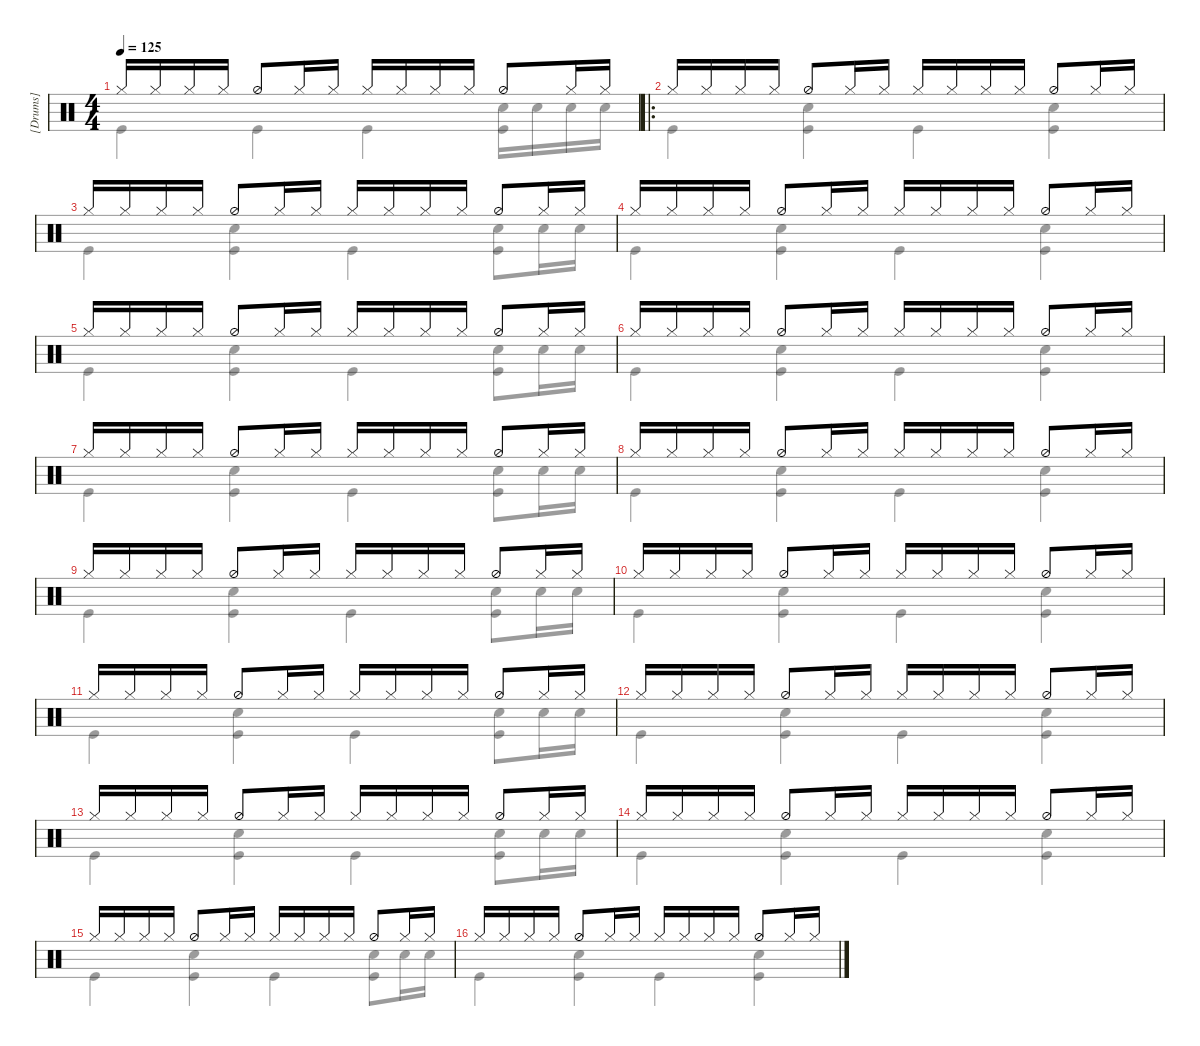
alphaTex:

\hideDynamics
\bracketExtendMode groupsimilarinstruments
\firstSystemTrackNameMode fullname
\otherSystemsTrackNameMode fullname
\otherSystemsTrackNameOrientation horizontal
\track ("[Drums]" "Drums") {instrument percussion}
\staff {score}
\articulation defaults
\voice
\ts (4 4)
\tempo 125
\clef neutral
\ks c "Hi-Hat (closed)".16{dy ff} "Hi-Hat (closed)".16 "Hi-Hat (closed)".16 "Hi-Hat (closed)".16 "Hi-Hat (half)".8 "Hi-Hat (closed)".16 "Hi-Hat (closed)".16 "Hi-Hat (closed)".16 "Hi-Hat (closed)".16 "Hi-Hat (closed)".16 "Hi-Hat (closed)".16 "Hi-Hat (half)".8 "Hi-Hat (closed)".16 "Hi-Hat (closed)".16
|
\ro
\scale
0.3 "Hi-Hat (closed)".16 "Hi-Hat (closed)".16 "Hi-Hat (closed)".16 "Hi-Hat (closed)".16 "Hi-Hat (half)".8 "Hi-Hat (closed)".16 "Hi-Hat (closed)".16 "Hi-Hat (closed)".16 "Hi-Hat (closed)".16 "Hi-Hat (closed)".16 "Hi-Hat (closed)".16 "Hi-Hat (half)".8 "Hi-Hat (closed)".16 "Hi-Hat (closed)".16 |
"Hi-Hat (closed)".16 "Hi-Hat (closed)".16 "Hi-Hat (closed)".16 "Hi-Hat (closed)".16 "Hi-Hat (half)".8 "Hi-Hat (closed)".16 "Hi-Hat (closed)".16 "Hi-Hat (closed)".16 "Hi-Hat (closed)".16 "Hi-Hat (closed)".16 "Hi-Hat (closed)".16 "Hi-Hat (half)".8 "Hi-Hat (closed)".16 "Hi-Hat (closed)".16 |
\scale
0.3 "Hi-Hat (closed)".16 "Hi-Hat (closed)".16 "Hi-Hat (closed)".16 "Hi-Hat (closed)".16 "Hi-Hat (half)".8 "Hi-Hat (closed)".16 "Hi-Hat (closed)".16 "Hi-Hat (closed)".16 "Hi-Hat (closed)".16 "Hi-Hat (closed)".16 "Hi-Hat (closed)".16 "Hi-Hat (half)".8 "Hi-Hat (closed)".16 "Hi-Hat (closed)".16 |
"Hi-Hat (closed)".16 "Hi-Hat (closed)".16 "Hi-Hat (closed)".16 "Hi-Hat (closed)".16 "Hi-Hat (half)".8 "Hi-Hat (closed)".16 "Hi-Hat (closed)".16 "Hi-Hat (closed)".16 "Hi-Hat (closed)".16 "Hi-Hat (closed)".16 "Hi-Hat (closed)".16 "Hi-Hat (half)".8 "Hi-Hat (closed)".16 "Hi-Hat (closed)".16 |
"Hi-Hat (closed)".16 "Hi-Hat (closed)".16 "Hi-Hat (closed)".16 "Hi-Hat (closed)".16 "Hi-Hat (half)".8 "Hi-Hat (closed)".16 "Hi-Hat (closed)".16 "Hi-Hat (closed)".16 "Hi-Hat (closed)".16 "Hi-Hat (closed)".16 "Hi-Hat (closed)".16 "Hi-Hat (half)".8 "Hi-Hat (closed)".16 "Hi-Hat (closed)".16 |
"Hi-Hat (closed)".16 "Hi-Hat (closed)".16 "Hi-Hat (closed)".16 "Hi-Hat (closed)".16 "Hi-Hat (half)".8 "Hi-Hat (closed)".16 "Hi-Hat (closed)".16 "Hi-Hat (closed)".16 "Hi-Hat (closed)".16 "Hi-Hat (closed)".16 "Hi-Hat (closed)".16 "Hi-Hat (half)".8 "Hi-Hat (closed)".16 "Hi-Hat (closed)".16 |
"Hi-Hat (closed)".16 "Hi-Hat (closed)".16 "Hi-Hat (closed)".16 "Hi-Hat (closed)".16 "Hi-Hat (half)".8 "Hi-Hat (closed)".16 "Hi-Hat (closed)".16 "Hi-Hat (closed)".16 "Hi-Hat (closed)".16 "Hi-Hat (closed)".16 "Hi-Hat (closed)".16 "Hi-Hat (half)".8 "Hi-Hat (closed)".16 "Hi-Hat (closed)".16 |
"Hi-Hat (closed)".16 "Hi-Hat (closed)".16 "Hi-Hat (closed)".16 "Hi-Hat (closed)".16 "Hi-Hat (half)".8 "Hi-Hat (closed)".16 "Hi-Hat (closed)".16 "Hi-Hat (closed)".16 "Hi-Hat (closed)".16 "Hi-Hat (closed)".16 "Hi-Hat (closed)".16 "Hi-Hat (half)".8 "Hi-Hat (closed)".16 "Hi-Hat (closed)".16 |
"Hi-Hat (closed)".16 "Hi-Hat (closed)".16 "Hi-Hat (closed)".16 "Hi-Hat (closed)".16 "Hi-Hat (half)".8 "Hi-Hat (closed)".16 "Hi-Hat (closed)".16 "Hi-Hat (closed)".16 "Hi-Hat (closed)".16 "Hi-Hat (closed)".16 "Hi-Hat (closed)".16 "Hi-Hat (half)".8 "Hi-Hat (closed)".16 "Hi-Hat (closed)".16 |
"Hi-Hat (closed)".16 "Hi-Hat (closed)".16 "Hi-Hat (closed)".16 "Hi-Hat (closed)".16 "Hi-Hat (half)".8 "Hi-Hat (closed)".16 "Hi-Hat (closed)".16 "Hi-Hat (closed)".16 "Hi-Hat (closed)".16 "Hi-Hat (closed)".16 "Hi-Hat (closed)".16 "Hi-Hat (half)".8 "Hi-Hat (closed)".16 "Hi-Hat (closed)".16 |
"Hi-Hat (closed)".16 "Hi-Hat (closed)".16 "Hi-Hat (closed)".16 "Hi-Hat (closed)".16 "Hi-Hat (half)".8 "Hi-Hat (closed)".16 "Hi-Hat (closed)".16 "Hi-Hat (closed)".16 "Hi-Hat (closed)".16 "Hi-Hat (closed)".16 "Hi-Hat (closed)".16 "Hi-Hat (half)".8 "Hi-Hat (closed)".16 "Hi-Hat (closed)".16 |
"Hi-Hat (closed)".16 "Hi-Hat (closed)".16 "Hi-Hat (closed)".16 "Hi-Hat (closed)".16 "Hi-Hat (half)".8 "Hi-Hat (closed)".16 "Hi-Hat (closed)".16 "Hi-Hat (closed)".16 "Hi-Hat (closed)".16 "Hi-Hat (closed)".16 "Hi-Hat (closed)".16 "Hi-Hat (half)".8 "Hi-Hat (closed)".16 "Hi-Hat (closed)".16 |
"Hi-Hat (closed)".16 "Hi-Hat (closed)".16 "Hi-Hat (closed)".16 "Hi-Hat (closed)".16 "Hi-Hat (half)".8 "Hi-Hat (closed)".16 "Hi-Hat (closed)".16 "Hi-Hat (closed)".16 "Hi-Hat (closed)".16 "Hi-Hat (closed)".16 "Hi-Hat (closed)".16 "Hi-Hat (half)".8 "Hi-Hat (closed)".16 "Hi-Hat (closed)".16 |
"Hi-Hat (closed)".16 "Hi-Hat (closed)".16 "Hi-Hat (closed)".16 "Hi-Hat (closed)".16 "Hi-Hat (half)".8 "Hi-Hat (closed)".16 "Hi-Hat (closed)".16 "Hi-Hat (closed)".16 "Hi-Hat (closed)".16 "Hi-Hat (closed)".16 "Hi-Hat (closed)".16 "Hi-Hat (half)".8 "Hi-Hat (closed)".16 "Hi-Hat (closed)".16 |
"Hi-Hat (closed)".16 "Hi-Hat (closed)".16 "Hi-Hat (closed)".16 "Hi-Hat (closed)".16 "Hi-Hat (half)".8 "Hi-Hat (closed)".16 "Hi-Hat (closed)".16 "Hi-Hat (closed)".16 "Hi-Hat (closed)".16 "Hi-Hat (closed)".16 "Hi-Hat (closed)".16 "Hi-Hat (half)".8 "Hi-Hat (closed)".16 "Hi-Hat (closed)".16
\voice
\clef neutral
\ottava regular
\simile none
\ks c "Kick (hit)".4{dy f} "Kick (hit)".4 "Kick (hit)".4
("Kick (hit)" "Snare (hit) 2").16 "Snare (hit) 2".16 "Snare (hit) 2".16 "Snare (hit) 2".16 |
\scale
0.3 "Kick (hit)".4 ("Kick (hit)" "Snare (hit) 2").4 "Kick (hit)".4 ("Kick (hit)" "Snare (hit) 2").4 |
"Kick (hit)".4 ("Kick (hit)" "Snare (hit) 2").4 "Kick (hit)".4 ("Kick (hit)" "Snare (hit) 2").8 "Snare (hit) 2".16 "Snare (hit) 2".16 |
\scale
0.3 "Kick (hit)".4 ("Kick (hit)" "Snare (hit) 2").4 "Kick (hit)".4 ("Kick (hit)" "Snare (hit) 2").4 |
"Kick (hit)".4 ("Kick (hit)" "Snare (hit) 2").4 "Kick (hit)".4 ("Kick (hit)" "Snare (hit) 2").8 "Snare (hit) 2".16 "Snare (hit) 2".16 |
"Kick (hit)".4 ("Kick (hit)" "Snare (hit) 2").4 "Kick (hit)".4 ("Kick (hit)" "Snare (hit) 2").4 |
"Kick (hit)".4 ("Kick (hit)" "Snare (hit) 2").4 "Kick (hit)".4 ("Kick (hit)" "Snare (hit) 2").8 "Snare (hit) 2".16 "Snare (hit) 2".16 |
"Kick (hit)".4 ("Kick (hit)" "Snare (hit) 2").4 "Kick (hit)".4 ("Kick (hit)" "Snare (hit) 2").4 |
"Kick (hit)".4 ("Kick (hit)" "Snare (hit) 2").4 "Kick (hit)".4 ("Kick (hit)" "Snare (hit) 2").8 "Snare (hit) 2".16 "Snare (hit) 2".16 |
"Kick (hit)".4 ("Kick (hit)" "Snare (hit) 2").4 "Kick (hit)".4 ("Kick (hit)" "Snare (hit) 2").4 |
"Kick (hit)".4 ("Kick (hit)" "Snare (hit) 2").4 "Kick (hit)".4 ("Kick (hit)" "Snare (hit) 2").8 "Snare (hit) 2".16 "Snare (hit) 2".16 |
"Kick (hit)".4 ("Kick (hit)" "Snare (hit) 2").4 "Kick (hit)".4 ("Kick (hit)" "Snare (hit) 2").4 |
"Kick (hit)".4 ("Kick (hit)" "Snare (hit) 2").4 "Kick (hit)".4 ("Kick (hit)" "Snare (hit) 2").8 "Snare (hit) 2".16 "Snare (hit) 2".16 |
"Kick (hit)".4 ("Kick (hit)" "Snare (hit) 2").4 "Kick (hit)".4 ("Kick (hit)" "Snare (hit) 2").4 |
"Kick (hit)".4 ("Kick (hit)" "Snare (hit) 2").4 "Kick (hit)".4 ("Kick (hit)" "Snare (hit) 2").8 "Snare (hit) 2".16 "Snare (hit) 2".16 |
"Kick (hit)".4 ("Kick (hit)" "Snare (hit) 2").4 "Kick (hit)".4 ("Kick (hit)" "Snare (hit) 2").4
